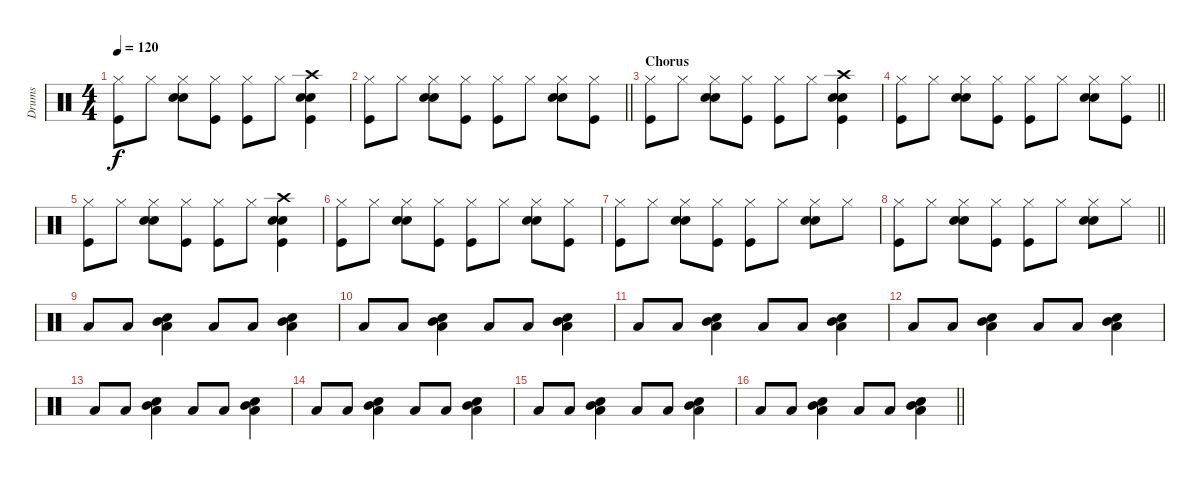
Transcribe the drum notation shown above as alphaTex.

\track ("Drums" "Drums") {instrument percussion}
\staff {score}
\articulation defaults
\ts (4 4)
\tempo 120
\clef neutral
\ks c
("Hi-Hat (closed)" "Kick (hit)").8{dy f} "Hi-Hat (closed)".8 ("Hi-Hat (closed)" "Snare (hit) 2" "Hand Clap (hit)").8 ("Hi-Hat (closed)" "Kick (hit)").8 ("Hi-Hat (closed)" "Kick (hit)").8 "Hi-Hat (closed)".8 ("Crash high (hit)" "Snare (hit) 2" "Hand Clap (hit)" "Kick (hit)").4 |
\barLineRight lightlight
("Hi-Hat (closed)" "Kick (hit)").8 "Hi-Hat (closed)".8 ("Hi-Hat (closed)" "Snare (hit) 2" "Hand Clap (hit)").8 ("Hi-Hat (closed)" "Kick (hit)").8 ("Hi-Hat (closed)" "Kick (hit)").8 "Hi-Hat (closed)".8 ("Hi-Hat (closed)" "Snare (hit) 2" "Hand Clap (hit)").8 ("Hi-Hat (closed)" "Kick (hit)").8 |
\section ("" "Chorus")
("Hi-Hat (closed)" "Kick (hit)").8 "Hi-Hat (closed)".8 ("Hi-Hat (closed)" "Snare (hit) 2" "Hand Clap (hit)").8 ("Hi-Hat (closed)" "Kick (hit)").8 ("Hi-Hat (closed)" "Kick (hit)").8 "Hi-Hat (closed)".8 ("Crash high (hit)" "Snare (hit) 2" "Hand Clap (hit)" "Kick (hit)").4 |
\barLineRight lightlight
("Hi-Hat (closed)" "Kick (hit)").8 "Hi-Hat (closed)".8 ("Hi-Hat (closed)" "Snare (hit) 2" "Hand Clap (hit)").8 ("Hi-Hat (closed)" "Kick (hit)").8 ("Hi-Hat (closed)" "Kick (hit)").8 "Hi-Hat (closed)".8 ("Hi-Hat (closed)" "Snare (hit) 2" "Hand Clap (hit)").8 ("Hi-Hat (closed)" "Kick (hit)").8 |
("Hi-Hat (closed)" "Kick (hit)").8 "Hi-Hat (closed)".8 ("Hi-Hat (closed)" "Snare (hit) 2" "Hand Clap (hit)").8 ("Hi-Hat (closed)" "Kick (hit)").8 ("Hi-Hat (closed)" "Kick (hit)").8 "Hi-Hat (closed)".8 ("Crash high (hit)" "Snare (hit) 2" "Hand Clap (hit)" "Kick (hit)").4 |
("Hi-Hat (closed)" "Kick (hit)").8 "Hi-Hat (closed)".8 ("Hi-Hat (closed)" "Snare (hit) 2" "Hand Clap (hit)").8 ("Hi-Hat (closed)" "Kick (hit)").8 ("Hi-Hat (closed)" "Kick (hit)").8 "Hi-Hat (closed)".8 ("Hi-Hat (closed)" "Snare (hit) 2" "Hand Clap (hit)").8 ("Hi-Hat (closed)" "Kick (hit)").8 |
("Hi-Hat (closed)" "Kick (hit)").8 "Hi-Hat (closed)".8 ("Hi-Hat (closed)" "Snare (hit) 2" "Hand Clap (hit)").8 ("Hi-Hat (closed)" "Kick (hit)").8 ("Hi-Hat (closed)" "Kick (hit)").8 "Hi-Hat (closed)".8 ("Hi-Hat (closed)" "Snare (hit) 2" "Hand Clap (hit)").8 "Hi-Hat (closed)".8 |
\barLineRight lightlight
("Hi-Hat (closed)" "Kick (hit)").8 "Hi-Hat (closed)".8 ("Hi-Hat (closed)" "Snare (hit) 2" "Hand Clap (hit)").8 ("Hi-Hat (closed)" "Kick (hit)").8 ("Hi-Hat (closed)" "Kick (hit)").8 "Hi-Hat (closed)".8 ("Hi-Hat (closed)" "Snare (hit) 2" "Hand Clap (hit)").8 "Hi-Hat (closed)".8 |
"Low Tom (hit)".8 "Low Tom (hit)".8 ("Hand Clap (hit)" "Mid Tom (hit)" "Low Tom (hit)").4 "Low Tom (hit)".8 "Low Tom (hit)".8 ("Hand Clap (hit)" "Mid Tom (hit)" "Low Tom (hit)").4 |
"Low Tom (hit)".8 "Low Tom (hit)".8 ("Hand Clap (hit)" "Mid Tom (hit)" "Low Tom (hit)").4 "Low Tom (hit)".8 "Low Tom (hit)".8 ("Hand Clap (hit)" "Mid Tom (hit)" "Low Tom (hit)").4 |
"Low Tom (hit)".8 "Low Tom (hit)".8 ("Hand Clap (hit)" "Mid Tom (hit)" "Low Tom (hit)").4 "Low Tom (hit)".8 "Low Tom (hit)".8 ("Hand Clap (hit)" "Mid Tom (hit)" "Low Tom (hit)").4 |
"Low Tom (hit)".8 "Low Tom (hit)".8 ("Hand Clap (hit)" "Mid Tom (hit)" "Low Tom (hit)").4 "Low Tom (hit)".8 "Low Tom (hit)".8 ("Hand Clap (hit)" "Mid Tom (hit)" "Low Tom (hit)").4 |
"Low Tom (hit)".8 "Low Tom (hit)".8 ("Hand Clap (hit)" "Mid Tom (hit)" "Low Tom (hit)").4 "Low Tom (hit)".8 "Low Tom (hit)".8 ("Hand Clap (hit)" "Mid Tom (hit)" "Low Tom (hit)").4 |
"Low Tom (hit)".8 "Low Tom (hit)".8 ("Hand Clap (hit)" "Mid Tom (hit)" "Low Tom (hit)").4 "Low Tom (hit)".8 "Low Tom (hit)".8 ("Hand Clap (hit)" "Mid Tom (hit)" "Low Tom (hit)").4 |
"Low Tom (hit)".8 "Low Tom (hit)".8 ("Hand Clap (hit)" "Mid Tom (hit)" "Low Tom (hit)").4 "Low Tom (hit)".8 "Low Tom (hit)".8 ("Hand Clap (hit)" "Mid Tom (hit)" "Low Tom (hit)").4 |
\barLineRight lightlight "Low Tom (hit)".8 "Low Tom (hit)".8
("Hand Clap (hit)" "Mid Tom (hit)" "Low Tom (hit)").4 "Low Tom (hit)".8 "Low Tom (hit)".8 ("Hand Clap (hit)" "Mid Tom (hit)" "Low Tom (hit)").4
